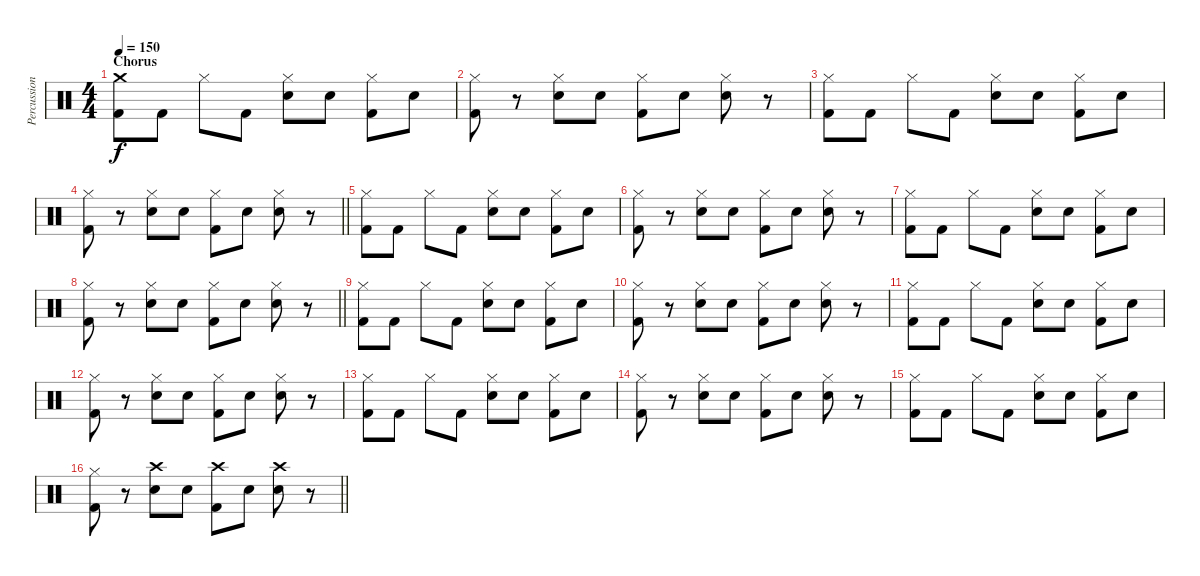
\track ("Percussion" "Percussion") {instrument percussion}
\staff {score}
\articulation defaults
\ts (4 4)
\section ("" "Chorus")
\tempo 150
\clef neutral
\ks c
("Crash medium (hit)" "Kick (hit) 2").8{dy f} "Kick (hit) 2".8 "Hi-Hat (closed)".8 "Kick (hit) 2".8 ("Hi-Hat (closed)" "Electric Snare (hit)").8 "Electric Snare (hit)".8 ("Hi-Hat (closed)" "Kick (hit) 2").8 "Electric Snare (hit)".8 |
("Hi-Hat (closed)" "Kick (hit) 2").8 r.8 ("Hi-Hat (closed)" "Electric Snare (hit)").8 "Electric Snare (hit)".8 ("Hi-Hat (closed)" "Kick (hit) 2").8 "Electric Snare (hit)".8 ("Hi-Hat (closed)" "Electric Snare (hit)").8 r.8 |
("Hi-Hat (closed)" "Kick (hit) 2").8 "Kick (hit) 2".8 "Hi-Hat (closed)".8 "Kick (hit) 2".8 ("Hi-Hat (closed)" "Electric Snare (hit)").8 "Electric Snare (hit)".8 ("Hi-Hat (closed)" "Kick (hit) 2").8 "Electric Snare (hit)".8 |
\barLineRight lightlight
("Hi-Hat (closed)" "Kick (hit) 2").8 r.8 ("Hi-Hat (closed)" "Electric Snare (hit)").8 "Electric Snare (hit)".8 ("Hi-Hat (closed)" "Kick (hit) 2").8 "Electric Snare (hit)".8 ("Hi-Hat (closed)" "Electric Snare (hit)").8 r.8 |
("Hi-Hat (closed)" "Kick (hit) 2").8 "Kick (hit) 2".8 "Hi-Hat (closed)".8 "Kick (hit) 2".8 ("Hi-Hat (closed)" "Electric Snare (hit)").8 "Electric Snare (hit)".8 ("Hi-Hat (closed)" "Kick (hit) 2").8 "Electric Snare (hit)".8 |
("Hi-Hat (closed)" "Kick (hit) 2").8 r.8 ("Hi-Hat (closed)" "Electric Snare (hit)").8 "Electric Snare (hit)".8 ("Hi-Hat (closed)" "Kick (hit) 2").8 "Electric Snare (hit)".8 ("Hi-Hat (closed)" "Electric Snare (hit)").8 r.8 |
("Hi-Hat (closed)" "Kick (hit) 2").8 "Kick (hit) 2".8 "Hi-Hat (closed)".8 "Kick (hit) 2".8 ("Hi-Hat (closed)" "Electric Snare (hit)").8 "Electric Snare (hit)".8 ("Hi-Hat (closed)" "Kick (hit) 2").8 "Electric Snare (hit)".8 |
\barLineRight lightlight
("Hi-Hat (closed)" "Kick (hit) 2").8 r.8 ("Hi-Hat (closed)" "Electric Snare (hit)").8 "Electric Snare (hit)".8 ("Hi-Hat (closed)" "Kick (hit) 2").8 "Electric Snare (hit)".8 ("Hi-Hat (closed)" "Electric Snare (hit)").8 r.8 |
("Hi-Hat (closed)" "Kick (hit) 2").8 "Kick (hit) 2".8 "Hi-Hat (closed)".8 "Kick (hit) 2".8 ("Hi-Hat (closed)" "Electric Snare (hit)").8 "Electric Snare (hit)".8 ("Hi-Hat (closed)" "Kick (hit) 2").8 "Electric Snare (hit)".8 |
("Hi-Hat (closed)" "Kick (hit) 2").8 r.8 ("Hi-Hat (closed)" "Electric Snare (hit)").8 "Electric Snare (hit)".8 ("Hi-Hat (closed)" "Kick (hit) 2").8 "Electric Snare (hit)".8 ("Hi-Hat (closed)" "Electric Snare (hit)").8 r.8 |
("Hi-Hat (closed)" "Kick (hit) 2").8 "Kick (hit) 2".8 "Hi-Hat (closed)".8 "Kick (hit) 2".8 ("Hi-Hat (closed)" "Electric Snare (hit)").8 "Electric Snare (hit)".8 ("Hi-Hat (closed)" "Kick (hit) 2").8 "Electric Snare (hit)".8 |
("Hi-Hat (closed)" "Kick (hit) 2").8 r.8 ("Hi-Hat (closed)" "Electric Snare (hit)").8 "Electric Snare (hit)".8 ("Hi-Hat (closed)" "Kick (hit) 2").8 "Electric Snare (hit)".8 ("Hi-Hat (closed)" "Electric Snare (hit)").8 r.8 |
("Hi-Hat (closed)" "Kick (hit) 2").8 "Kick (hit) 2".8 "Hi-Hat (closed)".8 "Kick (hit) 2".8 ("Hi-Hat (closed)" "Electric Snare (hit)").8 "Electric Snare (hit)".8 ("Hi-Hat (closed)" "Kick (hit) 2").8 "Electric Snare (hit)".8 |
("Hi-Hat (closed)" "Kick (hit) 2").8 r.8 ("Hi-Hat (closed)" "Electric Snare (hit)").8 "Electric Snare (hit)".8 ("Hi-Hat (closed)" "Kick (hit) 2").8 "Electric Snare (hit)".8 ("Hi-Hat (closed)" "Electric Snare (hit)").8 r.8 |
("Hi-Hat (closed)" "Kick (hit) 2").8 "Kick (hit) 2".8 "Hi-Hat (closed)".8 "Kick (hit) 2".8 ("Hi-Hat (closed)" "Electric Snare (hit)").8 "Electric Snare (hit)".8 ("Hi-Hat (closed)" "Kick (hit) 2").8 "Electric Snare (hit)".8 |
\barLineRight lightlight
("Hi-Hat (closed)" "Kick (hit) 2").8 r.8 ("Crash high (hit)" "Electric Snare (hit)").8 "Electric Snare (hit)".8 ("Crash high (hit)" "Kick (hit) 2").8 "Electric Snare (hit)".8 ("Crash high (hit)" "Electric Snare (hit)").8 r.8
